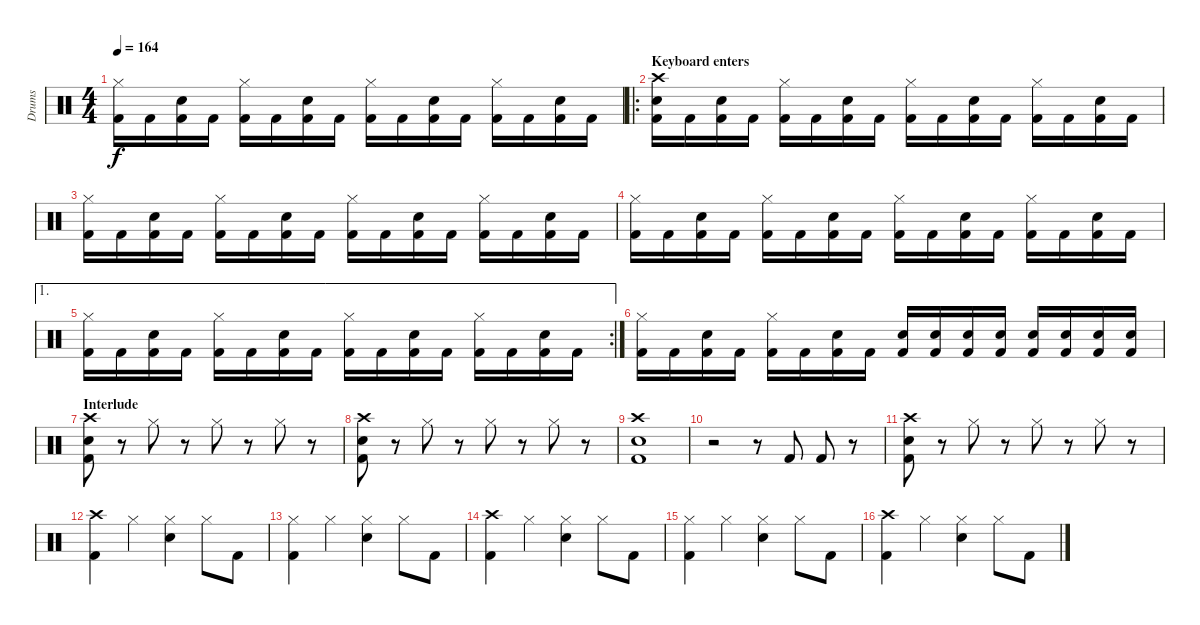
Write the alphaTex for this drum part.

\track ("Drums" "Drums") {instrument percussion}
\staff {score}
\articulation defaults
\ts (4 4)
\tempo 164
\clef neutral
\ks c
("Hi-Hat (closed)" "Kick (hit) 2").16{dy f} "Kick (hit) 2".16 ("Snare (hit) 2" "Kick (hit) 2").16 "Kick (hit) 2".16 ("Hi-Hat (closed)" "Kick (hit) 2").16 "Kick (hit) 2".16 ("Snare (hit) 2" "Kick (hit) 2").16 "Kick (hit) 2".16 ("Hi-Hat (closed)" "Kick (hit) 2").16 "Kick (hit) 2".16 ("Snare (hit) 2" "Kick (hit) 2").16 "Kick (hit) 2".16 ("Hi-Hat (closed)" "Kick (hit) 2").16 "Kick (hit) 2".16 ("Snare (hit) 2" "Kick (hit) 2").16 "Kick (hit) 2".16 |
\ro
\section ("" "Keyboard enters")
("Crash high (hit)" "Snare (hit) 2" "Kick (hit) 2").16 "Kick (hit) 2".16 ("Snare (hit) 2" "Kick (hit) 2").16 "Kick (hit) 2".16 ("Hi-Hat (closed)" "Kick (hit) 2").16 "Kick (hit) 2".16 ("Snare (hit) 2" "Kick (hit) 2").16 "Kick (hit) 2".16 ("Hi-Hat (closed)" "Kick (hit) 2").16 "Kick (hit) 2".16 ("Snare (hit) 2" "Kick (hit) 2").16 "Kick (hit) 2".16 ("Hi-Hat (closed)" "Kick (hit) 2").16 "Kick (hit) 2".16 ("Snare (hit) 2" "Kick (hit) 2").16 "Kick (hit) 2".16 |
("Hi-Hat (closed)" "Kick (hit) 2").16 "Kick (hit) 2".16 ("Snare (hit) 2" "Kick (hit) 2").16 "Kick (hit) 2".16 ("Hi-Hat (closed)" "Kick (hit) 2").16 "Kick (hit) 2".16 ("Snare (hit) 2" "Kick (hit) 2").16 "Kick (hit) 2".16 ("Hi-Hat (closed)" "Kick (hit) 2").16 "Kick (hit) 2".16 ("Snare (hit) 2" "Kick (hit) 2").16 "Kick (hit) 2".16 ("Hi-Hat (closed)" "Kick (hit) 2").16 "Kick (hit) 2".16 ("Snare (hit) 2" "Kick (hit) 2").16 "Kick (hit) 2".16 |
("Hi-Hat (closed)" "Kick (hit) 2").16 "Kick (hit) 2".16 ("Snare (hit) 2" "Kick (hit) 2").16 "Kick (hit) 2".16 ("Hi-Hat (closed)" "Kick (hit) 2").16 "Kick (hit) 2".16 ("Snare (hit) 2" "Kick (hit) 2").16 "Kick (hit) 2".16 ("Hi-Hat (closed)" "Kick (hit) 2").16 "Kick (hit) 2".16 ("Snare (hit) 2" "Kick (hit) 2").16 "Kick (hit) 2".16 ("Hi-Hat (closed)" "Kick (hit) 2").16 "Kick (hit) 2".16 ("Snare (hit) 2" "Kick (hit) 2").16 "Kick (hit) 2".16 |
\ae 1
\rc 2
("Hi-Hat (closed)" "Kick (hit) 2").16 "Kick (hit) 2".16 ("Snare (hit) 2" "Kick (hit) 2").16 "Kick (hit) 2".16 ("Hi-Hat (closed)" "Kick (hit) 2").16 "Kick (hit) 2".16 ("Snare (hit) 2" "Kick (hit) 2").16 "Kick (hit) 2".16 ("Hi-Hat (closed)" "Kick (hit) 2").16 "Kick (hit) 2".16 ("Snare (hit) 2" "Kick (hit) 2").16 "Kick (hit) 2".16 ("Hi-Hat (closed)" "Kick (hit) 2").16 "Kick (hit) 2".16 ("Snare (hit) 2" "Kick (hit) 2").16 "Kick (hit) 2".16 |
("Hi-Hat (closed)" "Kick (hit) 2").16 "Kick (hit) 2".16 ("Snare (hit) 2" "Kick (hit) 2").16 "Kick (hit) 2".16 ("Hi-Hat (closed)" "Kick (hit) 2").16 "Kick (hit) 2".16 ("Snare (hit) 2" "Kick (hit) 2").16 "Kick (hit) 2".16 ("Snare (hit) 2" "Kick (hit) 2").16 ("Snare (hit) 2" "Kick (hit) 2").16 ("Snare (hit) 2" "Kick (hit) 2").16 ("Snare (hit) 2" "Kick (hit) 2").16 ("Snare (hit) 2" "Kick (hit) 2").16 ("Snare (hit) 2" "Kick (hit) 2").16 ("Snare (hit) 2" "Kick (hit) 2").16 ("Snare (hit) 2" "Kick (hit) 2").16 |
\section ("" "Interlude")
("Crash high (hit)" "Snare (hit) 2" "Kick (hit) 2").8 r.8 "Hi-Hat (closed)".8 r.8 "Hi-Hat (closed)".8 r.8 "Hi-Hat (closed)".8 r.8 |
("Crash high (hit)" "Snare (hit) 2" "Kick (hit) 2").8 r.8 "Hi-Hat (closed)".8 r.8 "Hi-Hat (closed)".8 r.8 "Hi-Hat (closed)".8 r.8 |
("Crash high (hit)" "Snare (hit) 2" "Kick (hit) 2").1 |
r.2 r.8 "Kick (hit) 2".8 "Kick (hit) 2".8 r.8 |
("Crash high (hit)" "Snare (hit) 2" "Kick (hit) 2").8 r.8 "Hi-Hat (closed)".8 r.8 "Hi-Hat (closed)".8 r.8 "Hi-Hat (closed)".8 r.8 |
("Crash high (hit)" "Kick (hit) 2").4 "Hi-Hat (closed)".4 ("Hi-Hat (closed)" "Snare (hit) 2").4 "Hi-Hat (closed)".8 "Kick (hit) 2".8 |
("Hi-Hat (closed)" "Kick (hit) 2").4 "Hi-Hat (closed)".4 ("Hi-Hat (closed)" "Snare (hit) 2").4 "Hi-Hat (closed)".8 "Kick (hit) 2".8 |
("Crash high (hit)" "Kick (hit) 2").4 "Hi-Hat (closed)".4 ("Hi-Hat (closed)" "Snare (hit) 2").4 "Hi-Hat (closed)".8 "Kick (hit) 2".8 |
("Hi-Hat (closed)" "Kick (hit) 2").4 "Hi-Hat (closed)".4 ("Hi-Hat (closed)" "Snare (hit) 2").4 "Hi-Hat (closed)".8 "Kick (hit) 2".8 |
("Crash high (hit)" "Kick (hit) 2").4 "Hi-Hat (closed)".4 ("Hi-Hat (closed)" "Snare (hit) 2").4 "Hi-Hat (closed)".8 "Kick (hit) 2".8
